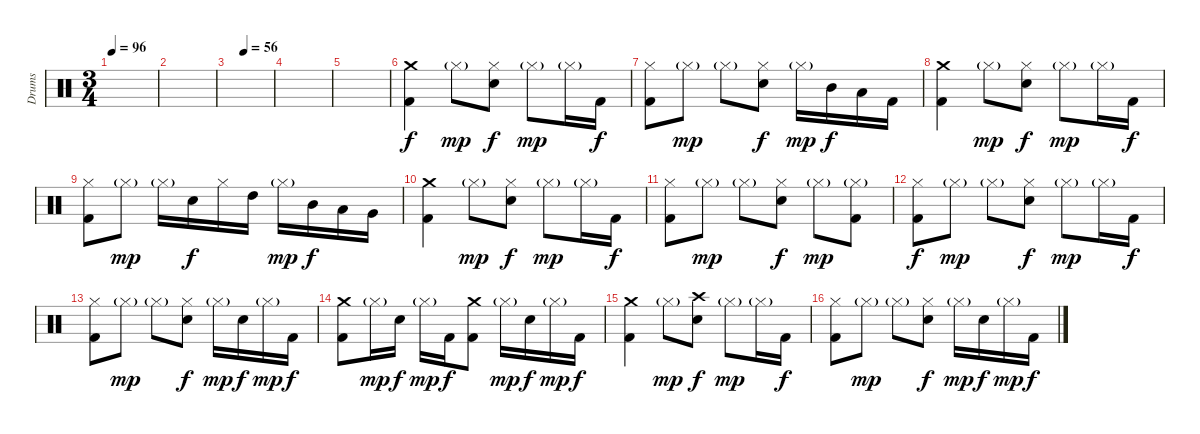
\track ("Drums" "Drums") {instrument percussion}
\staff {score}
\articulation defaults
\ts (3 4)
\tempo 96
\clef neutral
\ks c
|
|
\tempo (56 0.3333333333333333)
|
|
|
("Crash medium (hit)" "Kick (hit) 2").4 "Hi-Hat (closed)"{g}.8{dy mp} ("Hi-Hat (closed)" "Electric Snare (hit)").8{dy f} "Hi-Hat (closed)"{g}.8{dy mp} "Hi-Hat (closed)"{g}.16 "Kick (hit) 2".16{dy f} |
("Hi-Hat (closed)" "Kick (hit) 2").8 "Hi-Hat (closed)"{g}.8{dy mp} "Hi-Hat (closed)"{g}.8 ("Hi-Hat (closed)" "Electric Snare (hit)").8{dy f} "Hi-Hat (closed)"{g}.16{dy mp} "Mid Tom (hit)".16{dy f} "Low Tom (hit)".16 "Kick (hit) 2".16 |
("Crash medium (hit)" "Kick (hit) 2").4 "Hi-Hat (closed)"{g}.8{dy mp} ("Hi-Hat (closed)" "Electric Snare (hit)").8{dy f} "Hi-Hat (closed)"{g}.8{dy mp} "Hi-Hat (closed)"{g}.16 "Kick (hit) 2".16{dy f} |
("Hi-Hat (closed)" "Kick (hit) 2").8 "Hi-Hat (closed)"{g}.8{dy mp} "Hi-Hat (closed)"{g}.16 "Electric Snare (hit)".16{dy f} "Hi-Hat (closed)".16 "High Tom (hit)".16 "Hi-Hat (closed)"{g}.16{dy mp} "Mid Tom (hit)".16{dy f} "Low Tom (hit)".16 "Very Low Tom (hit)".16 |
("Crash medium (hit)" "Kick (hit) 2").4 "Hi-Hat (closed)"{g}.8{dy mp} ("Hi-Hat (closed)" "Electric Snare (hit)").8{dy f} "Hi-Hat (closed)"{g}.8{dy mp} "Hi-Hat (closed)"{g}.16 "Kick (hit) 2".16{dy f} |
("Hi-Hat (closed)" "Kick (hit) 2").8 "Hi-Hat (closed)"{g}.8{dy mp} "Hi-Hat (closed)"{g}.8 ("Hi-Hat (closed)" "Electric Snare (hit)").8{dy f} "Hi-Hat (closed)"{g}.8{dy mp} ("Hi-Hat (closed)"{g} "Kick (hit) 2").8 |
("Hi-Hat (closed)" "Kick (hit) 2").8{dy f} "Hi-Hat (closed)"{g}.8{dy mp} "Hi-Hat (closed)"{g}.8 ("Hi-Hat (closed)" "Electric Snare (hit)").8{dy f} "Hi-Hat (closed)"{g}.8{dy mp} "Hi-Hat (closed)"{g}.16 "Kick (hit) 2".16{dy f} |
("Hi-Hat (closed)" "Kick (hit) 2").8 "Hi-Hat (closed)"{g}.8{dy mp} "Hi-Hat (closed)"{g}.8 ("Hi-Hat (closed)" "Electric Snare (hit)").8{dy f} "Hi-Hat (closed)"{g}.16{dy mp} "Electric Snare (hit)".16{dy f} "Hi-Hat (closed)"{g}.16{dy mp} "Kick (hit) 2".16{dy f} |
("Crash medium (hit)" "Kick (hit) 2").8 "Hi-Hat (closed)"{g}.16{dy mp} "Electric Snare (hit)".16{dy f} "Hi-Hat (closed)"{g}.16{dy mp} "Kick (hit) 2".16{dy f} ("Crash medium (hit)" "Kick (hit) 2").8 "Hi-Hat (closed)"{g}.16{dy mp} "Electric Snare (hit)".16{dy f} "Hi-Hat (closed)"{g}.16{dy mp} "Kick (hit) 2".16{dy f} |
("Crash medium (hit)" "Kick (hit) 2").4 "Hi-Hat (closed)"{g}.8{dy mp} ("Crash high (hit)" "Electric Snare (hit)").8{dy f} "Hi-Hat (closed)"{g}.8{dy mp} "Hi-Hat (closed)"{g}.16 "Kick (hit) 2".16{dy f} |
("Hi-Hat (closed)" "Kick (hit) 2").8 "Hi-Hat (closed)"{g}.8{dy mp} "Hi-Hat (closed)"{g}.8 ("Hi-Hat (closed)" "Electric Snare (hit)").8{dy f} "Hi-Hat (closed)"{g}.16{dy mp} "Electric Snare (hit)".16{dy f} "Hi-Hat (closed)"{g}.16{dy mp} "Kick (hit) 2".16{dy f}
